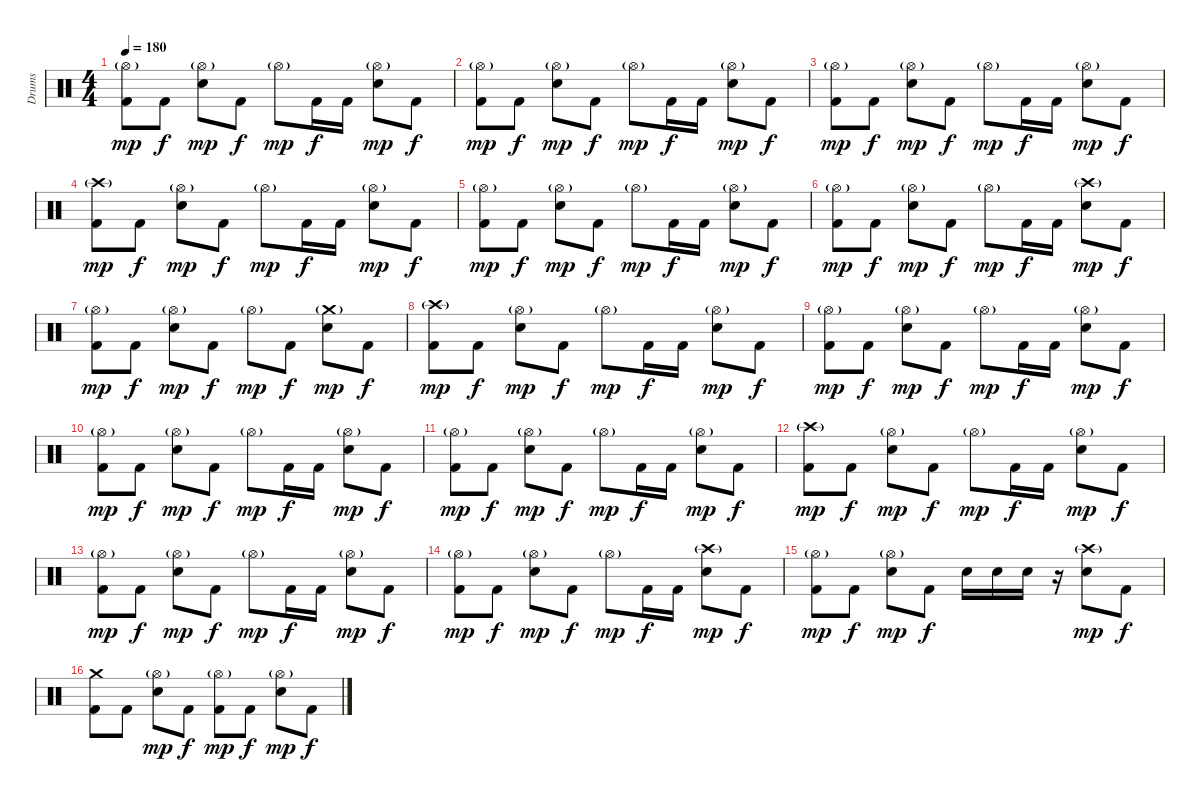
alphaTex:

\track ("Drums" "Drums") {instrument percussion}
\staff {score}
\articulation defaults
\ts (4 4)
\tempo 180
\clef neutral
\ks c
("Hi-Hat (open)"{g} "Kick (hit) 2").8{dy mp} "Kick (hit) 2".8{dy f} ("Hi-Hat (open)"{g} "Electric Snare (hit)").8{dy mp} "Kick (hit) 2".8{dy f} "Hi-Hat (open)"{g}.8{dy mp} "Kick (hit) 2".16{dy f} "Kick (hit) 2".16 ("Hi-Hat (open)"{g} "Electric Snare (hit)").8{dy mp} "Kick (hit) 2".8{dy f} |
("Hi-Hat (open)"{g} "Kick (hit) 2").8{dy mp} "Kick (hit) 2".8{dy f} ("Hi-Hat (open)"{g} "Electric Snare (hit)").8{dy mp} "Kick (hit) 2".8{dy f} "Hi-Hat (open)"{g}.8{dy mp} "Kick (hit) 2".16{dy f} "Kick (hit) 2".16 ("Hi-Hat (open)"{g} "Electric Snare (hit)").8{dy mp} "Kick (hit) 2".8{dy f} |
("Hi-Hat (open)"{g} "Kick (hit) 2").8{dy mp} "Kick (hit) 2".8{dy f} ("Hi-Hat (open)"{g} "Electric Snare (hit)").8{dy mp} "Kick (hit) 2".8{dy f} "Hi-Hat (open)"{g}.8{dy mp} "Kick (hit) 2".16{dy f} "Kick (hit) 2".16 ("Hi-Hat (open)"{g} "Electric Snare (hit)").8{dy mp} "Kick (hit) 2".8{dy f} |
("Crash high (hit)"{g} "Kick (hit) 2").8{dy mp} "Kick (hit) 2".8{dy f} ("Hi-Hat (open)"{g} "Electric Snare (hit)").8{dy mp} "Kick (hit) 2".8{dy f} "Hi-Hat (open)"{g}.8{dy mp} "Kick (hit) 2".16{dy f} "Kick (hit) 2".16 ("Hi-Hat (open)"{g} "Electric Snare (hit)").8{dy mp} "Kick (hit) 2".8{dy f} |
("Hi-Hat (open)"{g} "Kick (hit) 2").8{dy mp} "Kick (hit) 2".8{dy f} ("Hi-Hat (open)"{g} "Electric Snare (hit)").8{dy mp} "Kick (hit) 2".8{dy f} "Hi-Hat (open)"{g}.8{dy mp} "Kick (hit) 2".16{dy f} "Kick (hit) 2".16 ("Hi-Hat (open)"{g} "Electric Snare (hit)").8{dy mp} "Kick (hit) 2".8{dy f} |
("Hi-Hat (open)"{g} "Kick (hit) 2").8{dy mp} "Kick (hit) 2".8{dy f} ("Hi-Hat (open)"{g} "Electric Snare (hit)").8{dy mp} "Kick (hit) 2".8{dy f} "Hi-Hat (open)"{g}.8{dy mp} "Kick (hit) 2".16{dy f} "Kick (hit) 2".16 ("Crash high (hit)"{g} "Electric Snare (hit)").8{dy mp} "Kick (hit) 2".8{dy f} |
("Hi-Hat (open)"{g} "Kick (hit) 2").8{dy mp} "Kick (hit) 2".8{dy f} ("Hi-Hat (open)"{g} "Electric Snare (hit)").8{dy mp} "Kick (hit) 2".8{dy f} "Hi-Hat (open)"{g}.8{dy mp} "Kick (hit) 2".8{dy f} ("Crash medium (hit)"{g} "Electric Snare (hit)").8{dy mp} "Kick (hit) 2".8{dy f} |
("Crash high (hit)"{g} "Kick (hit) 2").8{dy mp} "Kick (hit) 2".8{dy f} ("Hi-Hat (open)"{g} "Electric Snare (hit)").8{dy mp} "Kick (hit) 2".8{dy f} "Hi-Hat (open)"{g}.8{dy mp} "Kick (hit) 2".16{dy f} "Kick (hit) 2".16 ("Hi-Hat (open)"{g} "Electric Snare (hit)").8{dy mp} "Kick (hit) 2".8{dy f} |
("Hi-Hat (open)"{g} "Kick (hit) 2").8{dy mp} "Kick (hit) 2".8{dy f} ("Hi-Hat (open)"{g} "Electric Snare (hit)").8{dy mp} "Kick (hit) 2".8{dy f} "Hi-Hat (open)"{g}.8{dy mp} "Kick (hit) 2".16{dy f} "Kick (hit) 2".16 ("Hi-Hat (open)"{g} "Electric Snare (hit)").8{dy mp} "Kick (hit) 2".8{dy f} |
("Hi-Hat (open)"{g} "Kick (hit) 2").8{dy mp} "Kick (hit) 2".8{dy f} ("Hi-Hat (open)"{g} "Electric Snare (hit)").8{dy mp} "Kick (hit) 2".8{dy f} "Hi-Hat (open)"{g}.8{dy mp} "Kick (hit) 2".16{dy f} "Kick (hit) 2".16 ("Hi-Hat (open)"{g} "Electric Snare (hit)").8{dy mp} "Kick (hit) 2".8{dy f} |
("Hi-Hat (open)"{g} "Kick (hit) 2").8{dy mp} "Kick (hit) 2".8{dy f} ("Hi-Hat (open)"{g} "Electric Snare (hit)").8{dy mp} "Kick (hit) 2".8{dy f} "Hi-Hat (open)"{g}.8{dy mp} "Kick (hit) 2".16{dy f} "Kick (hit) 2".16 ("Hi-Hat (open)"{g} "Electric Snare (hit)").8{dy mp} "Kick (hit) 2".8{dy f} |
("Crash high (hit)"{g} "Kick (hit) 2").8{dy mp} "Kick (hit) 2".8{dy f} ("Hi-Hat (open)"{g} "Electric Snare (hit)").8{dy mp} "Kick (hit) 2".8{dy f} "Hi-Hat (open)"{g}.8{dy mp} "Kick (hit) 2".16{dy f} "Kick (hit) 2".16 ("Hi-Hat (open)"{g} "Electric Snare (hit)").8{dy mp} "Kick (hit) 2".8{dy f} |
("Hi-Hat (open)"{g} "Kick (hit) 2").8{dy mp} "Kick (hit) 2".8{dy f} ("Hi-Hat (open)"{g} "Electric Snare (hit)").8{dy mp} "Kick (hit) 2".8{dy f} "Hi-Hat (open)"{g}.8{dy mp} "Kick (hit) 2".16{dy f} "Kick (hit) 2".16 ("Hi-Hat (open)"{g} "Electric Snare (hit)").8{dy mp} "Kick (hit) 2".8{dy f} |
("Hi-Hat (open)"{g} "Kick (hit) 2").8{dy mp} "Kick (hit) 2".8{dy f} ("Hi-Hat (open)"{g} "Electric Snare (hit)").8{dy mp} "Kick (hit) 2".8{dy f} "Hi-Hat (open)"{g}.8{dy mp} "Kick (hit) 2".16{dy f} "Kick (hit) 2".16 ("Crash high (hit)"{g} "Electric Snare (hit)").8{dy mp} "Kick (hit) 2".8{dy f} |
("Hi-Hat (open)"{g} "Kick (hit) 2").8{dy mp} "Kick (hit) 2".8{dy f} ("Hi-Hat (open)"{g} "Electric Snare (hit)").8{dy mp} "Kick (hit) 2".8{dy f} "Electric Snare (hit)".16 "Electric Snare (hit)".16 "Electric Snare (hit)".16 r.16 ("Crash high (hit)"{g} "Electric Snare (hit)").8{dy mp} "Kick (hit) 2".8{dy f} |
("Crash medium (hit)" "Kick (hit) 2").8 "Kick (hit) 2".8 ("Hi-Hat (open)"{g} "Electric Snare (hit)").8{dy mp} "Kick (hit) 2".8{dy f} ("Hi-Hat (open)"{g} "Kick (hit) 2").8{dy mp} "Kick (hit) 2".8{dy f} ("Hi-Hat (open)"{g} "Electric Snare (hit)").8{dy mp} "Kick (hit) 2".8{dy f}
